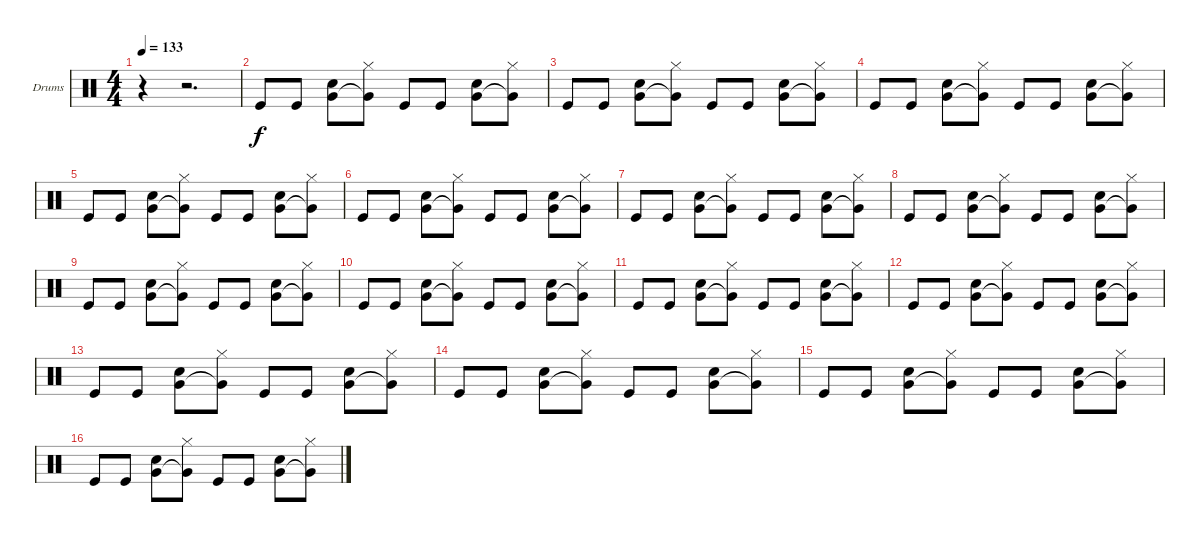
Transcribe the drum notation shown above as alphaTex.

\bracketExtendMode groupsimilarinstruments
\firstSystemTrackNameOrientation horizontal
\otherSystemsTrackNameOrientation horizontal
\track ("Drumkit" "Drums") {instrument percussion}
\staff {score}
\articulation defaults
\ts (4 4)
\tempo 133
\clef neutral
\ks c
r.4{dy f} r.2{d} |
"Kick (hit)".8 "Kick (hit)".8 ("Snare (hit) 2" "Very Low Tom (hit)").8 ("Hi-Hat (closed)" "Very Low Tom (hit)"{t}).8 "Kick (hit)".8 "Kick (hit)".8 ("Snare (hit) 2" "Very Low Tom (hit)").8 ("Hi-Hat (closed)" "Very Low Tom (hit)"{t}).8 |
"Kick (hit)".8 "Kick (hit)".8 ("Snare (hit) 2" "Very Low Tom (hit)").8 ("Hi-Hat (closed)" "Very Low Tom (hit)"{t}).8 "Kick (hit)".8 "Kick (hit)".8 ("Snare (hit) 2" "Very Low Tom (hit)").8 ("Hi-Hat (closed)" "Very Low Tom (hit)"{t}).8 |
"Kick (hit)".8 "Kick (hit)".8 ("Snare (hit) 2" "Very Low Tom (hit)").8 ("Hi-Hat (closed)" "Very Low Tom (hit)"{t}).8 "Kick (hit)".8 "Kick (hit)".8 ("Snare (hit) 2" "Very Low Tom (hit)").8 ("Hi-Hat (closed)" "Very Low Tom (hit)"{t}).8 |
"Kick (hit)".8 "Kick (hit)".8 ("Snare (hit) 2" "Very Low Tom (hit)").8 ("Hi-Hat (closed)" "Very Low Tom (hit)"{t}).8 "Kick (hit)".8 "Kick (hit)".8 ("Snare (hit) 2" "Very Low Tom (hit)").8 ("Hi-Hat (closed)" "Very Low Tom (hit)"{t}).8 |
"Kick (hit)".8 "Kick (hit)".8 ("Snare (hit) 2" "Very Low Tom (hit)").8 ("Hi-Hat (closed)" "Very Low Tom (hit)"{t}).8 "Kick (hit)".8 "Kick (hit)".8 ("Snare (hit) 2" "Very Low Tom (hit)").8 ("Hi-Hat (closed)" "Very Low Tom (hit)"{t}).8 |
"Kick (hit)".8 "Kick (hit)".8 ("Snare (hit) 2" "Very Low Tom (hit)").8 ("Hi-Hat (closed)" "Very Low Tom (hit)"{t}).8 "Kick (hit)".8 "Kick (hit)".8 ("Snare (hit) 2" "Very Low Tom (hit)").8 ("Hi-Hat (closed)" "Very Low Tom (hit)"{t}).8 |
"Kick (hit)".8 "Kick (hit)".8 ("Snare (hit) 2" "Very Low Tom (hit)").8 ("Hi-Hat (closed)" "Very Low Tom (hit)"{t}).8 "Kick (hit)".8 "Kick (hit)".8 ("Snare (hit) 2" "Very Low Tom (hit)").8 ("Hi-Hat (closed)" "Very Low Tom (hit)"{t}).8 |
"Kick (hit)".8 "Kick (hit)".8 ("Snare (hit) 2" "Very Low Tom (hit)").8 ("Hi-Hat (closed)" "Very Low Tom (hit)"{t}).8 "Kick (hit)".8 "Kick (hit)".8 ("Snare (hit) 2" "Very Low Tom (hit)").8 ("Hi-Hat (closed)" "Very Low Tom (hit)"{t}).8 |
"Kick (hit)".8 "Kick (hit)".8 ("Snare (hit) 2" "Very Low Tom (hit)").8 ("Hi-Hat (closed)" "Very Low Tom (hit)"{t}).8 "Kick (hit)".8 "Kick (hit)".8 ("Snare (hit) 2" "Very Low Tom (hit)").8 ("Hi-Hat (closed)" "Very Low Tom (hit)"{t}).8 |
"Kick (hit)".8 "Kick (hit)".8 ("Snare (hit) 2" "Very Low Tom (hit)").8 ("Hi-Hat (closed)" "Very Low Tom (hit)"{t}).8 "Kick (hit)".8 "Kick (hit)".8 ("Snare (hit) 2" "Very Low Tom (hit)").8 ("Hi-Hat (closed)" "Very Low Tom (hit)"{t}).8 |
"Kick (hit)".8 "Kick (hit)".8 ("Snare (hit) 2" "Very Low Tom (hit)").8 ("Hi-Hat (closed)" "Very Low Tom (hit)"{t}).8 "Kick (hit)".8 "Kick (hit)".8 ("Snare (hit) 2" "Very Low Tom (hit)").8 ("Hi-Hat (closed)" "Very Low Tom (hit)"{t}).8 |
"Kick (hit)".8 "Kick (hit)".8 ("Snare (hit) 2" "Very Low Tom (hit)").8 ("Hi-Hat (closed)" "Very Low Tom (hit)"{t}).8 "Kick (hit)".8 "Kick (hit)".8 ("Snare (hit) 2" "Very Low Tom (hit)").8 ("Hi-Hat (closed)" "Very Low Tom (hit)"{t}).8 |
"Kick (hit)".8 "Kick (hit)".8 ("Snare (hit) 2" "Very Low Tom (hit)").8 ("Hi-Hat (closed)" "Very Low Tom (hit)"{t}).8 "Kick (hit)".8 "Kick (hit)".8 ("Snare (hit) 2" "Very Low Tom (hit)").8 ("Hi-Hat (closed)" "Very Low Tom (hit)"{t}).8 |
"Kick (hit)".8 "Kick (hit)".8 ("Snare (hit) 2" "Very Low Tom (hit)").8 ("Hi-Hat (closed)" "Very Low Tom (hit)"{t}).8 "Kick (hit)".8 "Kick (hit)".8 ("Snare (hit) 2" "Very Low Tom (hit)").8 ("Hi-Hat (closed)" "Very Low Tom (hit)"{t}).8 |
"Kick (hit)".8 "Kick (hit)".8 ("Snare (hit) 2" "Very Low Tom (hit)").8 ("Hi-Hat (closed)" "Very Low Tom (hit)"{t}).8 "Kick (hit)".8 "Kick (hit)".8 ("Snare (hit) 2" "Very Low Tom (hit)").8 ("Hi-Hat (closed)" "Very Low Tom (hit)"{t}).8
